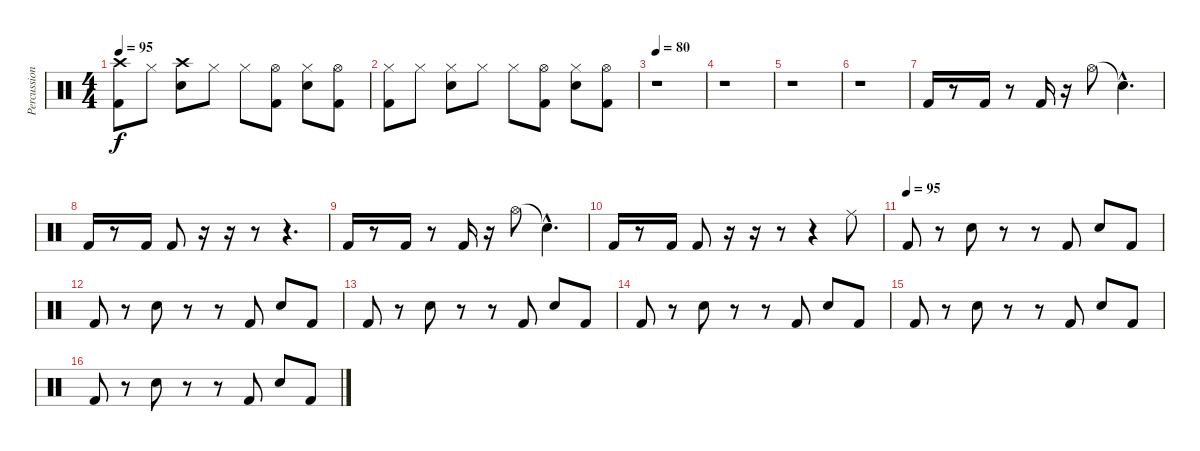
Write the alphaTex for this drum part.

\track ("Percussion" "Percussion") {instrument percussion}
\staff {score}
\articulation defaults
\ts (4 4)
\tempo 95
\clef neutral
\ks c
("Crash high (hit)" "Kick (hit) 2").8{dy f} "Hi-Hat (closed)".8 ("Crash high (hit)" "Snare (hit) 2").8 "Hi-Hat (closed)".8 "Hi-Hat (closed)".8 ("Hi-Hat (open)" "Kick (hit) 2").8 ("Hi-Hat (closed)" "Snare (hit) 2").8 ("Hi-Hat (open)" "Kick (hit) 2").8 |
("Hi-Hat (closed)" "Kick (hit) 2").8 "Hi-Hat (closed)".8 ("Hi-Hat (closed)" "Snare (hit) 2").8 "Hi-Hat (closed)".8 "Hi-Hat (closed)".8 ("Hi-Hat (open)" "Kick (hit) 2").8 ("Hi-Hat (closed)" "Snare (hit) 2").8 ("Hi-Hat (open)" "Kick (hit) 2").8 |
\tempo 80
r.1{volume 10} |
r.1 |
r.1 |
r.1 |
"Kick (hit) 2".16 r.8 "Kick (hit) 2".16 r.8 "Kick (hit) 2".16 r.16 "Hi-Hat (open)".8 "Snare (hit)"{hac t}.4{d} |
"Kick (hit) 2".16 r.8 "Kick (hit) 2".16 "Kick (hit) 2".8 r.16 r.16 r.8 r.4{d} |
"Kick (hit) 2".16 r.8 "Kick (hit) 2".16 r.8 "Kick (hit) 2".16 r.16 "Hi-Hat (open)".8 "Snare (hit)"{hac t}.4{d} |
"Kick (hit) 2".16 r.8 "Kick (hit) 2".16 "Kick (hit) 2".8 r.16 r.16 r.8 r.4 "Ride (middle)".8 |
\tempo (95)
"Kick (hit) 2".8{volume 10} r.8 "Snare (hit) 2".8 r.8 r.8 "Kick (hit) 2".8 "Snare (hit) 2".8 "Kick (hit) 2".8 |
"Kick (hit) 2".8 r.8 "Snare (hit) 2".8 r.8 r.8 "Kick (hit) 2".8 "Snare (hit) 2".8 "Kick (hit) 2".8 |
"Kick (hit) 2".8 r.8 "Snare (hit) 2".8 r.8 r.8 "Kick (hit) 2".8 "Snare (hit) 2".8 "Kick (hit) 2".8 |
"Kick (hit) 2".8 r.8 "Snare (hit) 2".8 r.8 r.8 "Kick (hit) 2".8 "Snare (hit) 2".8 "Kick (hit) 2".8 |
"Kick (hit) 2".8 r.8 "Snare (hit) 2".8 r.8 r.8 "Kick (hit) 2".8 "Snare (hit) 2".8 "Kick (hit) 2".8 |
"Kick (hit) 2".8 r.8 "Snare (hit) 2".8 r.8 r.8 "Kick (hit) 2".8 "Snare (hit) 2".8 "Kick (hit) 2".8
